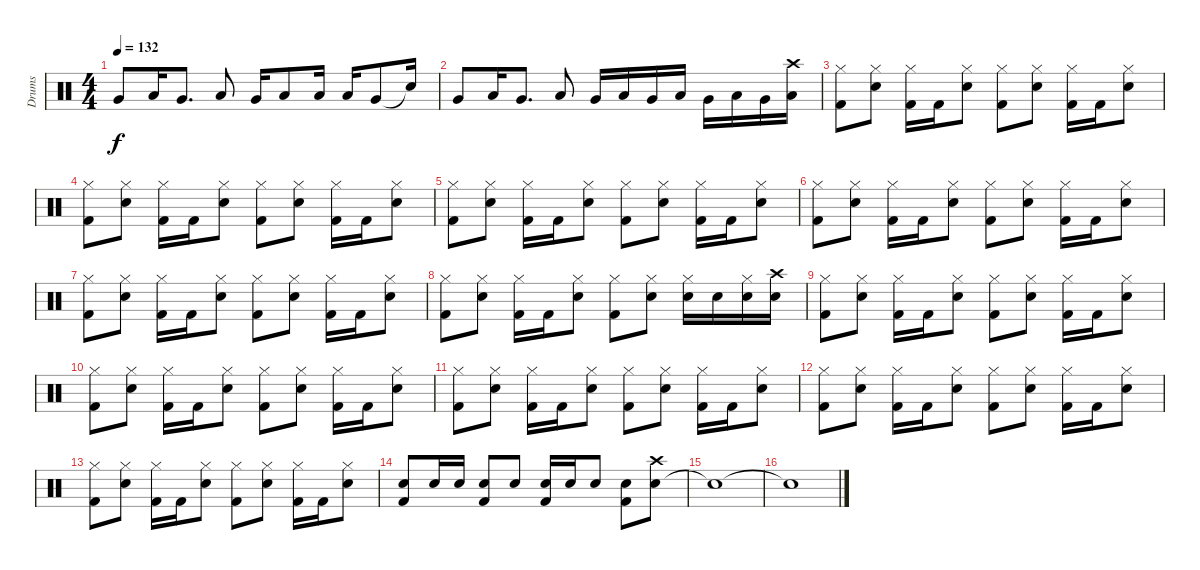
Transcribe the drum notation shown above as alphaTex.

\track ("Drums" "Drums") {instrument percussion}
\staff {score}
\articulation defaults
\ts (4 4)
\tempo 132
\clef neutral
\ks c "Very Low Tom (hit)".8{dy f} "Low Floor Tom (hit)".16 "Very Low Tom (hit)".8{d} "Low Floor Tom (hit)".8 "Very Low Tom (hit)".16 "Low Floor Tom (hit)".8 "Low Floor Tom (hit)".16 "Low Floor Tom (hit)".16 "Very Low Tom (hit)".8 "Snare (hit)"{t}.16
|
"Very Low Tom (hit)".8 "Low Floor Tom (hit)".16 "Very Low Tom (hit)".8{d} "Low Floor Tom (hit)".8 "Very Low Tom (hit)".16 "Low Floor Tom (hit)".16 "Very Low Tom (hit)".16 "Low Floor Tom (hit)".16 "Very Low Tom (hit)".16 "Low Floor Tom (hit)".16 "Very Low Tom (hit)".16 ("Low Floor Tom (hit)" "Crash high (hit)").16 |
("Kick (hit) 2" "Hi-Hat (closed)").8 ("Snare (hit) 2" "Hi-Hat (closed)").8 ("Kick (hit) 2" "Hi-Hat (closed)").16 "Kick (hit) 2".16 ("Snare (hit) 2" "Hi-Hat (closed)").8 ("Kick (hit) 2" "Hi-Hat (closed)").8 ("Snare (hit) 2" "Hi-Hat (closed)").8 ("Kick (hit) 2" "Hi-Hat (closed)").16 "Kick (hit) 2".16 ("Snare (hit) 2" "Hi-Hat (closed)").8 |
("Kick (hit) 2" "Hi-Hat (closed)").8 ("Snare (hit) 2" "Hi-Hat (closed)").8 ("Kick (hit) 2" "Hi-Hat (closed)").16 "Kick (hit) 2".16 ("Snare (hit) 2" "Hi-Hat (closed)").8 ("Kick (hit) 2" "Hi-Hat (closed)").8 ("Snare (hit) 2" "Hi-Hat (closed)").8 ("Kick (hit) 2" "Hi-Hat (closed)").16 "Kick (hit) 2".16 ("Snare (hit) 2" "Hi-Hat (closed)").8 |
("Kick (hit) 2" "Hi-Hat (closed)").8 ("Snare (hit) 2" "Hi-Hat (closed)").8 ("Kick (hit) 2" "Hi-Hat (closed)").16 "Kick (hit) 2".16 ("Snare (hit) 2" "Hi-Hat (closed)").8 ("Kick (hit) 2" "Hi-Hat (closed)").8 ("Snare (hit) 2" "Hi-Hat (closed)").8 ("Kick (hit) 2" "Hi-Hat (closed)").16 "Kick (hit) 2".16 ("Snare (hit) 2" "Hi-Hat (closed)").8 |
("Kick (hit) 2" "Hi-Hat (closed)").8 ("Snare (hit) 2" "Hi-Hat (closed)").8 ("Kick (hit) 2" "Hi-Hat (closed)").16 "Kick (hit) 2".16 ("Snare (hit) 2" "Hi-Hat (closed)").8 ("Kick (hit) 2" "Hi-Hat (closed)").8 ("Snare (hit) 2" "Hi-Hat (closed)").8 ("Kick (hit) 2" "Hi-Hat (closed)").16 "Kick (hit) 2".16 ("Snare (hit) 2" "Hi-Hat (closed)").8 |
("Kick (hit) 2" "Hi-Hat (closed)").8 ("Snare (hit) 2" "Hi-Hat (closed)").8 ("Kick (hit) 2" "Hi-Hat (closed)").16 "Kick (hit) 2".16 ("Snare (hit) 2" "Hi-Hat (closed)").8 ("Kick (hit) 2" "Hi-Hat (closed)").8 ("Snare (hit) 2" "Hi-Hat (closed)").8 ("Kick (hit) 2" "Hi-Hat (closed)").16 "Kick (hit) 2".16 ("Snare (hit) 2" "Hi-Hat (closed)").8 |
("Kick (hit) 2" "Hi-Hat (closed)").8 ("Snare (hit) 2" "Hi-Hat (closed)").8 ("Kick (hit) 2" "Hi-Hat (closed)").16 "Kick (hit) 2".16 ("Snare (hit) 2" "Hi-Hat (closed)").8 ("Kick (hit) 2" "Hi-Hat (closed)").8 ("Snare (hit) 2" "Hi-Hat (closed)").8 ("Snare (hit) 2" "Hi-Hat (closed)").16 "Snare (hit) 2".16 ("Snare (hit) 2" "Hi-Hat (closed)").16 ("Snare (hit) 2" "Crash high (hit)").16 |
("Kick (hit) 2" "Hi-Hat (closed)").8 ("Snare (hit) 2" "Hi-Hat (closed)").8 ("Kick (hit) 2" "Hi-Hat (closed)").16 "Kick (hit) 2".16 ("Snare (hit) 2" "Hi-Hat (closed)").8 ("Kick (hit) 2" "Hi-Hat (closed)").8 ("Snare (hit) 2" "Hi-Hat (closed)").8 ("Kick (hit) 2" "Hi-Hat (closed)").16 "Kick (hit) 2".16 ("Snare (hit) 2" "Hi-Hat (closed)").8 |
("Kick (hit) 2" "Hi-Hat (closed)").8 ("Snare (hit) 2" "Hi-Hat (closed)").8 ("Kick (hit) 2" "Hi-Hat (closed)").16 "Kick (hit) 2".16 ("Snare (hit) 2" "Hi-Hat (closed)").8 ("Kick (hit) 2" "Hi-Hat (closed)").8 ("Snare (hit) 2" "Hi-Hat (closed)").8 ("Kick (hit) 2" "Hi-Hat (closed)").16 "Kick (hit) 2".16 ("Snare (hit) 2" "Hi-Hat (closed)").8 |
("Kick (hit) 2" "Hi-Hat (closed)").8 ("Snare (hit) 2" "Hi-Hat (closed)").8 ("Kick (hit) 2" "Hi-Hat (closed)").16 "Kick (hit) 2".16 ("Snare (hit) 2" "Hi-Hat (closed)").8 ("Kick (hit) 2" "Hi-Hat (closed)").8 ("Snare (hit) 2" "Hi-Hat (closed)").8 ("Kick (hit) 2" "Hi-Hat (closed)").16 "Kick (hit) 2".16 ("Snare (hit) 2" "Hi-Hat (closed)").8 |
("Kick (hit) 2" "Hi-Hat (closed)").8 ("Snare (hit) 2" "Hi-Hat (closed)").8 ("Kick (hit) 2" "Hi-Hat (closed)").16 "Kick (hit) 2".16 ("Snare (hit) 2" "Hi-Hat (closed)").8 ("Kick (hit) 2" "Hi-Hat (closed)").8 ("Snare (hit) 2" "Hi-Hat (closed)").8 ("Kick (hit) 2" "Hi-Hat (closed)").16 "Kick (hit) 2".16 ("Snare (hit) 2" "Hi-Hat (closed)").8 |
("Kick (hit) 2" "Hi-Hat (closed)").8 ("Snare (hit) 2" "Hi-Hat (closed)").8 ("Kick (hit) 2" "Hi-Hat (closed)").16 "Kick (hit) 2".16 ("Snare (hit) 2" "Hi-Hat (closed)").8 ("Kick (hit) 2" "Hi-Hat (closed)").8 ("Snare (hit) 2" "Hi-Hat (closed)").8 ("Kick (hit) 2" "Hi-Hat (closed)").16 "Kick (hit) 2".16 ("Snare (hit) 2" "Hi-Hat (closed)").8 |
("Snare (hit) 2" "Kick (hit) 2").8 "Snare (hit) 2".16 "Snare (hit) 2".16 ("Snare (hit) 2" "Kick (hit) 2").8 "Snare (hit) 2".8 ("Snare (hit) 2" "Kick (hit) 2").16 "Snare (hit) 2".16 "Snare (hit) 2".8 ("Snare (hit) 2" "Kick (hit) 2").8 ("Snare (hit) 2" "Crash high (hit)").8 |
"Snare (hit)"{t}.1 |
"Snare (hit)"{t}.1
